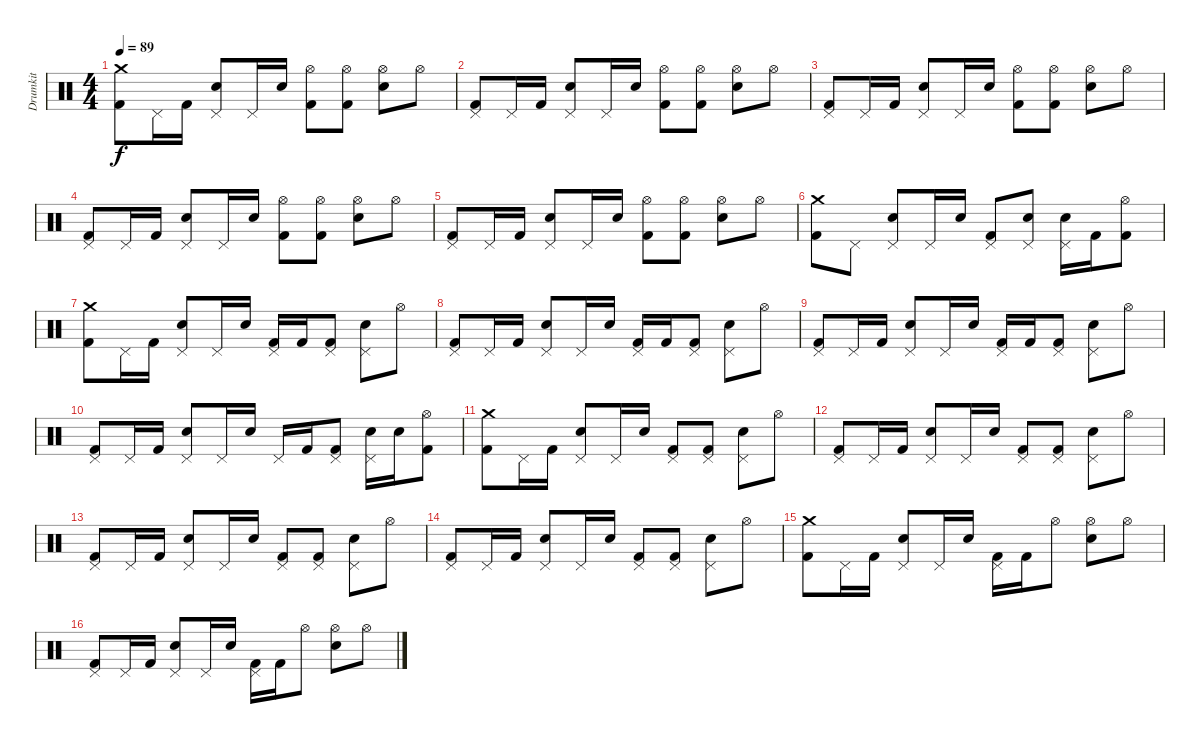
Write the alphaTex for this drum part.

\track ("Drumkit" "Drumkit") {instrument percussion}
\staff {score}
\articulation defaults
\ts (4 4)
\tempo 89
\clef neutral
\ks c
("Crash medium (hit)" "Kick (hit) 2").8{dy f} "Pedal Hi-Hat (hit)".16 "Kick (hit) 2".16 ("Pedal Hi-Hat (hit)" "Snare (hit) 2").8 "Pedal Hi-Hat (hit)".16 "Snare (hit) 2".16 ("Hi-Hat (open)" "Kick (hit) 2").8 ("Hi-Hat (open)" "Kick (hit) 2").8 ("Hi-Hat (open)" "Snare (hit) 2").8 "Hi-Hat (open)".8 |
("Pedal Hi-Hat (hit)" "Kick (hit) 2").8 "Pedal Hi-Hat (hit)".16 "Kick (hit) 2".16 ("Pedal Hi-Hat (hit)" "Snare (hit) 2").8 "Pedal Hi-Hat (hit)".16 "Snare (hit) 2".16 ("Hi-Hat (open)" "Kick (hit) 2").8 ("Hi-Hat (open)" "Kick (hit) 2").8 ("Hi-Hat (open)" "Snare (hit) 2").8 "Hi-Hat (open)".8 |
("Pedal Hi-Hat (hit)" "Kick (hit) 2").8 "Pedal Hi-Hat (hit)".16 "Kick (hit) 2".16 ("Pedal Hi-Hat (hit)" "Snare (hit) 2").8 "Pedal Hi-Hat (hit)".16 "Snare (hit) 2".16 ("Hi-Hat (open)" "Kick (hit) 2").8 ("Hi-Hat (open)" "Kick (hit) 2").8 ("Hi-Hat (open)" "Snare (hit) 2").8 "Hi-Hat (open)".8 |
("Pedal Hi-Hat (hit)" "Kick (hit) 2").8 "Pedal Hi-Hat (hit)".16 "Kick (hit) 2".16 ("Pedal Hi-Hat (hit)" "Snare (hit) 2").8 "Pedal Hi-Hat (hit)".16 "Snare (hit) 2".16 ("Hi-Hat (open)" "Kick (hit) 2").8 ("Hi-Hat (open)" "Kick (hit) 2").8 ("Hi-Hat (open)" "Snare (hit) 2").8 "Hi-Hat (open)".8 |
("Pedal Hi-Hat (hit)" "Kick (hit) 2").8 "Pedal Hi-Hat (hit)".16 "Kick (hit) 2".16 ("Pedal Hi-Hat (hit)" "Snare (hit) 2").8 "Pedal Hi-Hat (hit)".16 "Snare (hit) 2".16 ("Hi-Hat (open)" "Kick (hit) 2").8 ("Hi-Hat (open)" "Kick (hit) 2").8 ("Hi-Hat (open)" "Snare (hit) 2").8 "Hi-Hat (open)".8 |
("Crash medium (hit)" "Kick (hit) 2").8 "Pedal Hi-Hat (hit)".8 ("Pedal Hi-Hat (hit)" "Snare (hit) 2").8 "Pedal Hi-Hat (hit)".16 "Snare (hit) 2".16 ("Pedal Hi-Hat (hit)" "Kick (hit) 2").8 ("Pedal Hi-Hat (hit)" "Snare (hit) 2").8 ("Pedal Hi-Hat (hit)" "Snare (hit) 2").16 "Kick (hit) 2".16 ("Hi-Hat (open)" "Kick (hit) 2").8 |
("Crash medium (hit)" "Kick (hit) 2").8 "Pedal Hi-Hat (hit)".16 "Kick (hit) 2".16 ("Pedal Hi-Hat (hit)" "Snare (hit) 2").8 "Pedal Hi-Hat (hit)".16 "Snare (hit) 2".16 ("Pedal Hi-Hat (hit)" "Kick (hit) 2").16 "Kick (hit) 2".16 ("Pedal Hi-Hat (hit)" "Kick (hit) 2").8 ("Pedal Hi-Hat (hit)" "Snare (hit) 2").8 "Hi-Hat (open)".8 |
("Pedal Hi-Hat (hit)" "Kick (hit) 2").8 "Pedal Hi-Hat (hit)".16 "Kick (hit) 2".16 ("Pedal Hi-Hat (hit)" "Snare (hit) 2").8 "Pedal Hi-Hat (hit)".16 "Snare (hit) 2".16 ("Pedal Hi-Hat (hit)" "Kick (hit) 2").16 "Kick (hit) 2".16 ("Pedal Hi-Hat (hit)" "Kick (hit) 2").8 ("Pedal Hi-Hat (hit)" "Snare (hit) 2").8 "Hi-Hat (open)".8 |
("Pedal Hi-Hat (hit)" "Kick (hit) 2").8 "Pedal Hi-Hat (hit)".16 "Kick (hit) 2".16 ("Pedal Hi-Hat (hit)" "Snare (hit) 2").8 "Pedal Hi-Hat (hit)".16 "Snare (hit) 2".16 ("Pedal Hi-Hat (hit)" "Kick (hit) 2").16 "Kick (hit) 2".16 ("Pedal Hi-Hat (hit)" "Kick (hit) 2").8 ("Pedal Hi-Hat (hit)" "Snare (hit) 2").8 "Hi-Hat (open)".8 |
("Pedal Hi-Hat (hit)" "Kick (hit) 2").8 "Pedal Hi-Hat (hit)".16 "Kick (hit) 2".16 ("Pedal Hi-Hat (hit)" "Snare (hit) 2").8 "Pedal Hi-Hat (hit)".16 "Snare (hit) 2".16 "Pedal Hi-Hat (hit)".16 "Kick (hit) 2".16 ("Pedal Hi-Hat (hit)" "Kick (hit) 2").8 ("Pedal Hi-Hat (hit)" "Snare (hit) 2").16 "Snare (hit) 2".16 ("Hi-Hat (open)" "Kick (hit) 2").8 |
("Crash medium (hit)" "Kick (hit) 2").8 "Pedal Hi-Hat (hit)".16 "Kick (hit) 2".16 ("Pedal Hi-Hat (hit)" "Snare (hit) 2").8 "Pedal Hi-Hat (hit)".16 "Snare (hit) 2".16 ("Pedal Hi-Hat (hit)" "Kick (hit) 2").8 ("Pedal Hi-Hat (hit)" "Kick (hit) 2").8 ("Pedal Hi-Hat (hit)" "Snare (hit) 2").8 "Hi-Hat (open)".8 |
("Pedal Hi-Hat (hit)" "Kick (hit) 2").8 "Pedal Hi-Hat (hit)".16 "Kick (hit) 2".16 ("Pedal Hi-Hat (hit)" "Snare (hit) 2").8 "Pedal Hi-Hat (hit)".16 "Snare (hit) 2".16 ("Pedal Hi-Hat (hit)" "Kick (hit) 2").8 ("Pedal Hi-Hat (hit)" "Kick (hit) 2").8 ("Pedal Hi-Hat (hit)" "Snare (hit) 2").8 "Hi-Hat (open)".8 |
("Pedal Hi-Hat (hit)" "Kick (hit) 2").8 "Pedal Hi-Hat (hit)".16 "Kick (hit) 2".16 ("Pedal Hi-Hat (hit)" "Snare (hit) 2").8 "Pedal Hi-Hat (hit)".16 "Snare (hit) 2".16 ("Pedal Hi-Hat (hit)" "Kick (hit) 2").8 ("Pedal Hi-Hat (hit)" "Kick (hit) 2").8 ("Pedal Hi-Hat (hit)" "Snare (hit) 2").8 "Hi-Hat (open)".8 |
("Pedal Hi-Hat (hit)" "Kick (hit) 2").8 "Pedal Hi-Hat (hit)".16 "Kick (hit) 2".16 ("Pedal Hi-Hat (hit)" "Snare (hit) 2").8 "Pedal Hi-Hat (hit)".16 "Snare (hit) 2".16 ("Pedal Hi-Hat (hit)" "Kick (hit) 2").8 ("Pedal Hi-Hat (hit)" "Kick (hit) 2").8 ("Pedal Hi-Hat (hit)" "Snare (hit) 2").8 "Hi-Hat (open)".8 |
("Crash medium (hit)" "Kick (hit) 2").8 "Pedal Hi-Hat (hit)".16 "Kick (hit) 2".16 ("Pedal Hi-Hat (hit)" "Snare (hit) 2").8 "Pedal Hi-Hat (hit)".16 "Snare (hit) 2".16 ("Pedal Hi-Hat (hit)" "Kick (hit) 2").16 "Kick (hit) 2".16 "Hi-Hat (open)".8 ("Hi-Hat (open)" "Snare (hit) 2").8 "Hi-Hat (open)".8 |
("Pedal Hi-Hat (hit)" "Kick (hit) 2").8 "Pedal Hi-Hat (hit)".16 "Kick (hit) 2".16 ("Pedal Hi-Hat (hit)" "Snare (hit) 2").8 "Pedal Hi-Hat (hit)".16 "Snare (hit) 2".16 ("Pedal Hi-Hat (hit)" "Kick (hit) 2").16 "Kick (hit) 2".16 "Hi-Hat (open)".8 ("Hi-Hat (open)" "Snare (hit) 2").8 "Hi-Hat (open)".8
